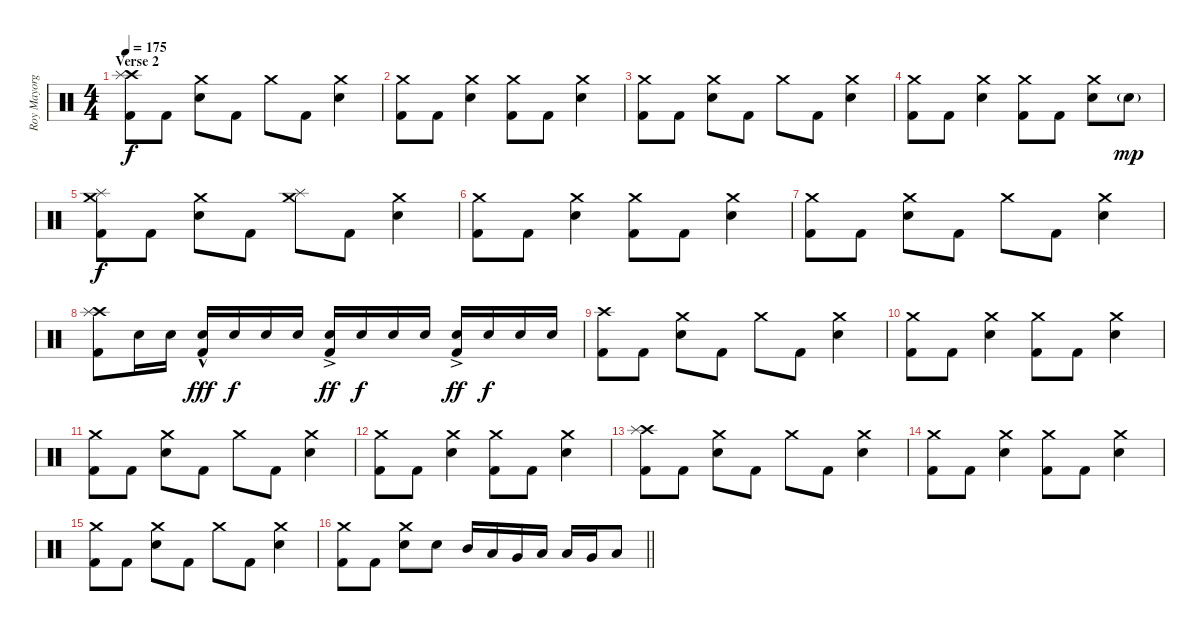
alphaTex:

\track ("Roy Mayorga" "Roy Mayorg") {instrument percussion}
\staff {score}
\articulation defaults
\ts (4 4)
\section ("" "Verse 2")
\tempo 175
\clef neutral
\ks c
("Crash high (hit)" "Splash (hit)" "Kick (hit) 2").8{dy f} "Kick (hit) 2".8 ("Crash medium (hit)" "Electric Snare (hit)").8 "Kick (hit) 2".8 "Crash medium (hit)".8 "Kick (hit) 2".8 ("Crash medium (hit)" "Electric Snare (hit)").4 |
("Crash medium (hit)" "Kick (hit) 2").8 "Kick (hit) 2".8 ("Crash medium (hit)" "Electric Snare (hit)").4 ("Crash medium (hit)" "Kick (hit) 2").8 "Kick (hit) 2".8 ("Crash medium (hit)" "Electric Snare (hit)").4 |
("Crash medium (hit)" "Kick (hit) 2").8 "Kick (hit) 2".8 ("Crash medium (hit)" "Electric Snare (hit)").8 "Kick (hit) 2".8 "Crash medium (hit)".8 "Kick (hit) 2".8 ("Crash medium (hit)" "Electric Snare (hit)").4 |
("Crash medium (hit)" "Kick (hit) 2").8 "Kick (hit) 2".8 ("Crash medium (hit)" "Electric Snare (hit)").4 ("Crash medium (hit)" "Kick (hit) 2").8 "Kick (hit) 2".8 ("Crash medium (hit)" "Electric Snare (hit)").8 "Electric Snare (hit)"{g}.8{dy mp} |
("Crash medium (hit)" "Splash (hit)" "Kick (hit) 2").8{dy f} "Kick (hit) 2".8 ("Crash medium (hit)" "Electric Snare (hit)").8 "Kick (hit) 2".8 ("Crash medium (hit)" "Splash (hit)").8 "Kick (hit) 2".8 ("Crash medium (hit)" "Electric Snare (hit)").4 |
("Crash medium (hit)" "Kick (hit) 2").8 "Kick (hit) 2".8 ("Crash medium (hit)" "Electric Snare (hit)").4 ("Crash medium (hit)" "Kick (hit) 2").8 "Kick (hit) 2".8 ("Crash medium (hit)" "Electric Snare (hit)").4 |
("Crash medium (hit)" "Kick (hit) 2").8 "Kick (hit) 2".8 ("Crash medium (hit)" "Electric Snare (hit)").8 "Kick (hit) 2".8 "Crash medium (hit)".8 "Kick (hit) 2".8 ("Crash medium (hit)" "Electric Snare (hit)").4 |
("Crash high (hit)" "Splash (hit)" "Kick (hit) 2").8 "Electric Snare (hit)".16 "Electric Snare (hit)".16 ("Electric Snare (hit)"{hac} "Kick (hit) 2").16{dy fff} "Electric Snare (hit)".16{dy f} "Electric Snare (hit)".16 "Electric Snare (hit)".16 ("Electric Snare (hit)"{ac} "Kick (hit) 2").16{dy ff} "Electric Snare (hit)".16{dy f} "Electric Snare (hit)".16 "Electric Snare (hit)".16 ("Electric Snare (hit)"{ac} "Kick (hit) 2").16{dy ff} "Electric Snare (hit)".16{dy f} "Electric Snare (hit)".16 "Electric Snare (hit)".16 |
("Crash high (hit)" "Kick (hit) 2").8 "Kick (hit) 2".8 ("Crash medium (hit)" "Electric Snare (hit)").8 "Kick (hit) 2".8 "Crash medium (hit)".8 "Kick (hit) 2".8 ("Crash medium (hit)" "Electric Snare (hit)").4 |
("Crash medium (hit)" "Kick (hit) 2").8 "Kick (hit) 2".8 ("Crash medium (hit)" "Electric Snare (hit)").4 ("Crash medium (hit)" "Kick (hit) 2").8 "Kick (hit) 2".8 ("Crash medium (hit)" "Electric Snare (hit)").4 |
("Crash medium (hit)" "Kick (hit) 2").8 "Kick (hit) 2".8 ("Crash medium (hit)" "Electric Snare (hit)").8 "Kick (hit) 2".8 "Crash medium (hit)".8 "Kick (hit) 2".8 ("Crash medium (hit)" "Electric Snare (hit)").4 |
("Crash medium (hit)" "Kick (hit) 2").8 "Kick (hit) 2".8 ("Crash medium (hit)" "Electric Snare (hit)").4 ("Crash medium (hit)" "Kick (hit) 2").8 "Kick (hit) 2".8 ("Crash medium (hit)" "Electric Snare (hit)").4 |
("Crash high (hit)" "Splash (hit)" "Kick (hit) 2").8 "Kick (hit) 2".8 ("Crash medium (hit)" "Electric Snare (hit)").8 "Kick (hit) 2".8 "Crash medium (hit)".8 "Kick (hit) 2".8 ("Crash medium (hit)" "Electric Snare (hit)").4 |
("Crash medium (hit)" "Kick (hit) 2").8 "Kick (hit) 2".8 ("Crash medium (hit)" "Electric Snare (hit)").4 ("Crash medium (hit)" "Kick (hit) 2").8 "Kick (hit) 2".8 ("Crash medium (hit)" "Electric Snare (hit)").4 |
("Crash medium (hit)" "Kick (hit) 2").8 "Kick (hit) 2".8 ("Crash medium (hit)" "Electric Snare (hit)").8 "Kick (hit) 2".8 "Crash medium (hit)".8 "Kick (hit) 2".8 ("Crash medium (hit)" "Electric Snare (hit)").4 |
\barLineRight lightlight
("Crash medium (hit)" "Kick (hit) 2").8 "Kick (hit) 2".8 ("Crash medium (hit)" "Electric Snare (hit)").8 "Electric Snare (hit)".8 "Mid Tom (hit)".16 "Low Tom (hit)".16 "Very Low Tom (hit)".16 "Low Floor Tom (hit)".16 "Low Tom (hit)".16 "Very Low Tom (hit)".16 "Low Floor Tom (hit)".8
